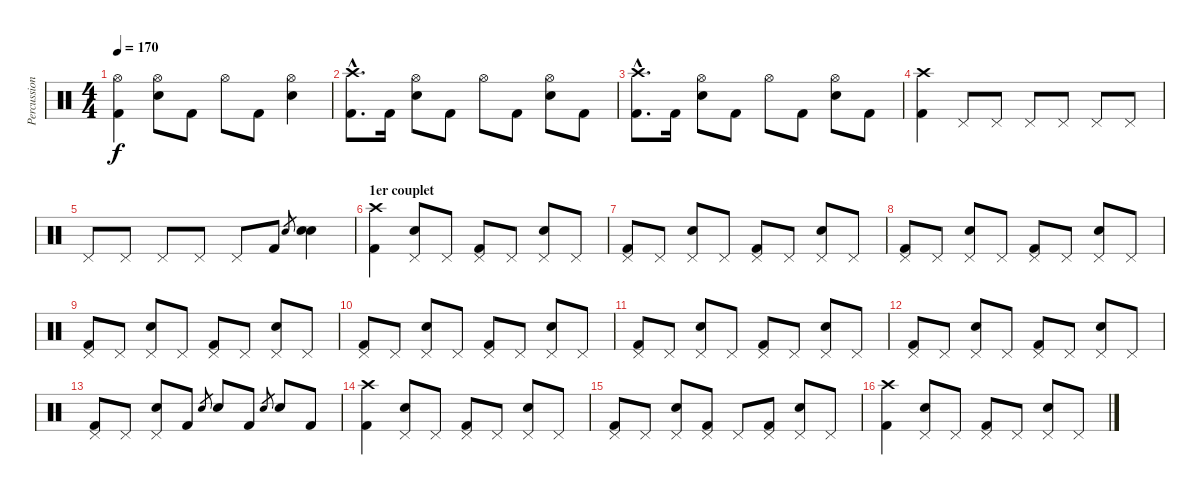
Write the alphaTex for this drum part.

\track ("Percussions" "Percussion") {instrument percussion}
\staff {score}
\articulation defaults
\ts (4 4)
\tempo 170
\clef neutral
\ks c
("Hi-Hat (open)" "Kick (hit) 2").4{dy f} ("Hi-Hat (open)" "Electric Snare (hit)").8 "Kick (hit) 2".8 "Hi-Hat (open)".8 "Kick (hit) 2".8 ("Hi-Hat (open)" "Electric Snare (hit)").4 |
("Crash high (hit)"{hac} "Kick (hit) 2"{hac}).8{d} "Kick (hit) 2".16 ("Hi-Hat (open)" "Electric Snare (hit)").8 "Kick (hit) 2".8 "Hi-Hat (open)".8 "Kick (hit) 2".8 ("Hi-Hat (open)" "Electric Snare (hit)").8 "Kick (hit) 2".8 |
("Crash high (hit)"{hac} "Kick (hit) 2"{hac}).8{d} "Kick (hit) 2".16 ("Hi-Hat (open)" "Electric Snare (hit)").8 "Kick (hit) 2".8 "Hi-Hat (open)".8 "Kick (hit) 2".8 ("Hi-Hat (open)" "Electric Snare (hit)").8 "Kick (hit) 2".8 |
("Crash high (hit)" "Kick (hit) 2").4 "Pedal Hi-Hat (hit)".8 "Pedal Hi-Hat (hit)".8 "Pedal Hi-Hat (hit)".8 "Pedal Hi-Hat (hit)".8 "Pedal Hi-Hat (hit)".8 "Pedal Hi-Hat (hit)".8 |
"Pedal Hi-Hat (hit)".8 "Pedal Hi-Hat (hit)".8 "Pedal Hi-Hat (hit)".8 "Pedal Hi-Hat (hit)".8 "Pedal Hi-Hat (hit)".8 "Kick (hit) 2".8 "Electric Snare (hit)".8{gr} ("Electric Snare (hit)" "Electric Snare (hit)").4 |
\section ("" "1er couplet")
("Crash high (hit)" "Kick (hit) 2").4 ("Pedal Hi-Hat (hit)" "Electric Snare (hit)").8 "Pedal Hi-Hat (hit)".8 ("Pedal Hi-Hat (hit)" "Kick (hit) 2").8 "Pedal Hi-Hat (hit)".8 ("Pedal Hi-Hat (hit)" "Electric Snare (hit)").8 "Pedal Hi-Hat (hit)".8 |
("Pedal Hi-Hat (hit)" "Kick (hit) 2").8 "Pedal Hi-Hat (hit)".8 ("Pedal Hi-Hat (hit)" "Electric Snare (hit)").8 "Pedal Hi-Hat (hit)".8 ("Pedal Hi-Hat (hit)" "Kick (hit) 2").8 "Pedal Hi-Hat (hit)".8 ("Pedal Hi-Hat (hit)" "Electric Snare (hit)").8 "Pedal Hi-Hat (hit)".8 |
("Pedal Hi-Hat (hit)" "Kick (hit) 2").8 "Pedal Hi-Hat (hit)".8 ("Pedal Hi-Hat (hit)" "Electric Snare (hit)").8 "Pedal Hi-Hat (hit)".8 ("Pedal Hi-Hat (hit)" "Kick (hit) 2").8 "Pedal Hi-Hat (hit)".8 ("Pedal Hi-Hat (hit)" "Electric Snare (hit)").8 "Pedal Hi-Hat (hit)".8 |
("Pedal Hi-Hat (hit)" "Kick (hit) 2").8 "Pedal Hi-Hat (hit)".8 ("Pedal Hi-Hat (hit)" "Electric Snare (hit)").8 "Pedal Hi-Hat (hit)".8 ("Pedal Hi-Hat (hit)" "Kick (hit) 2").8 "Pedal Hi-Hat (hit)".8 ("Pedal Hi-Hat (hit)" "Electric Snare (hit)").8 "Pedal Hi-Hat (hit)".8 |
("Pedal Hi-Hat (hit)" "Kick (hit) 2").8 "Pedal Hi-Hat (hit)".8 ("Pedal Hi-Hat (hit)" "Electric Snare (hit)").8 "Pedal Hi-Hat (hit)".8 ("Pedal Hi-Hat (hit)" "Kick (hit) 2").8 "Pedal Hi-Hat (hit)".8 ("Pedal Hi-Hat (hit)" "Electric Snare (hit)").8 "Pedal Hi-Hat (hit)".8 |
("Pedal Hi-Hat (hit)" "Kick (hit) 2").8 "Pedal Hi-Hat (hit)".8 ("Pedal Hi-Hat (hit)" "Electric Snare (hit)").8 "Pedal Hi-Hat (hit)".8 ("Pedal Hi-Hat (hit)" "Kick (hit) 2").8 "Pedal Hi-Hat (hit)".8 ("Pedal Hi-Hat (hit)" "Electric Snare (hit)").8 "Pedal Hi-Hat (hit)".8 |
("Pedal Hi-Hat (hit)" "Kick (hit) 2").8 "Pedal Hi-Hat (hit)".8 ("Pedal Hi-Hat (hit)" "Electric Snare (hit)").8 "Pedal Hi-Hat (hit)".8 ("Pedal Hi-Hat (hit)" "Kick (hit) 2").8 "Pedal Hi-Hat (hit)".8 ("Pedal Hi-Hat (hit)" "Electric Snare (hit)").8 "Pedal Hi-Hat (hit)".8 |
("Pedal Hi-Hat (hit)" "Kick (hit) 2").8 "Pedal Hi-Hat (hit)".8 ("Pedal Hi-Hat (hit)" "Electric Snare (hit)").8 "Kick (hit) 2".8 "Electric Snare (hit)".8{gr} "Electric Snare (hit)".8 "Kick (hit) 2".8 "Electric Snare (hit)".8{gr} "Electric Snare (hit)".8 "Kick (hit) 2".8 |
("Crash high (hit)" "Kick (hit) 2").4 ("Pedal Hi-Hat (hit)" "Electric Snare (hit)").8 "Pedal Hi-Hat (hit)".8 ("Pedal Hi-Hat (hit)" "Kick (hit) 2").8 "Pedal Hi-Hat (hit)".8 ("Pedal Hi-Hat (hit)" "Electric Snare (hit)").8 "Pedal Hi-Hat (hit)".8 |
("Pedal Hi-Hat (hit)" "Kick (hit) 2").8 "Pedal Hi-Hat (hit)".8 ("Pedal Hi-Hat (hit)" "Electric Snare (hit)").8 ("Pedal Hi-Hat (hit)" "Kick (hit) 2").8 "Pedal Hi-Hat (hit)".8 ("Pedal Hi-Hat (hit)" "Kick (hit) 2").8 ("Pedal Hi-Hat (hit)" "Electric Snare (hit)").8 "Pedal Hi-Hat (hit)".8 |
("Crash high (hit)" "Kick (hit) 2").4 ("Pedal Hi-Hat (hit)" "Electric Snare (hit)").8 "Pedal Hi-Hat (hit)".8 ("Pedal Hi-Hat (hit)" "Kick (hit) 2").8 "Pedal Hi-Hat (hit)".8 ("Pedal Hi-Hat (hit)" "Electric Snare (hit)").8 "Pedal Hi-Hat (hit)".8
